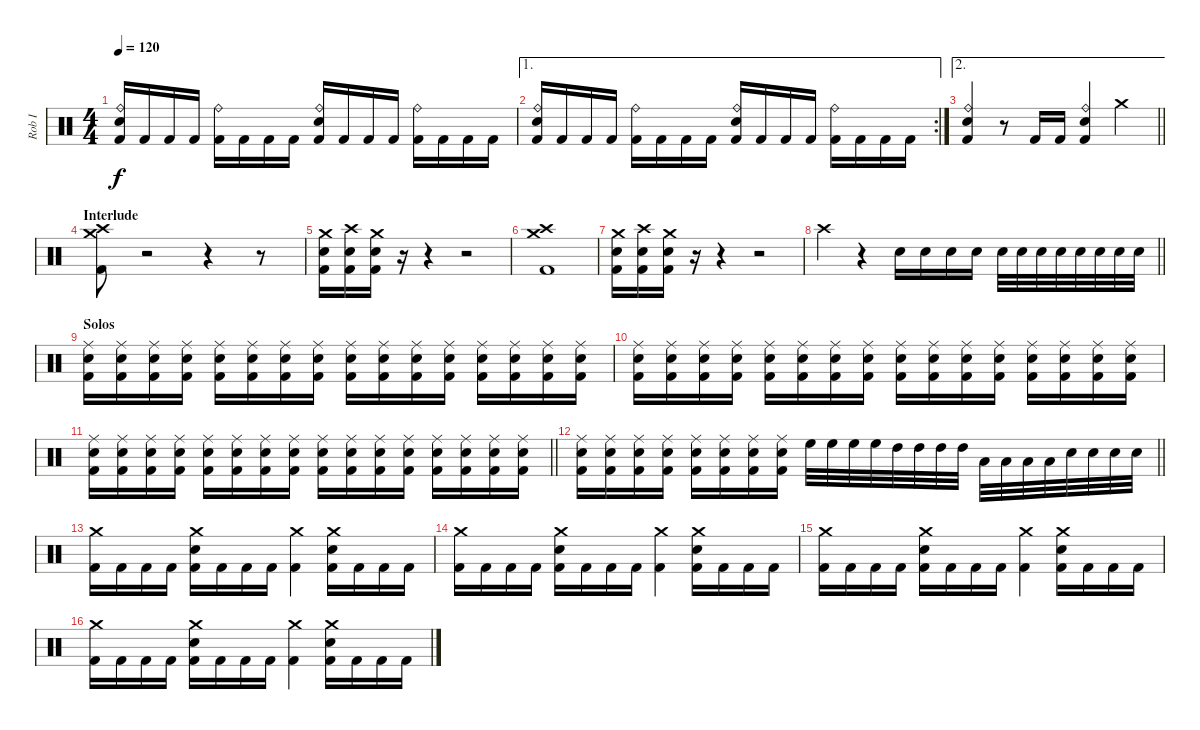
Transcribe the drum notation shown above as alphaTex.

\track ("Rob I" "Rob I") {instrument percussion}
\staff {score}
\articulation defaults
\ts (4 4)
\tempo 120
\clef neutral
\ks c
("Kick (hit) 2" "Ride (bell)" "Electric Snare (hit)").16{dy f} "Kick (hit) 2".16 "Kick (hit) 2".16 "Kick (hit) 2".16 ("Kick (hit) 2" "Ride (bell)").16 "Kick (hit) 2".16 "Kick (hit) 2".16 "Kick (hit) 2".16 ("Kick (hit) 2" "Ride (bell)" "Electric Snare (hit)").16 "Kick (hit) 2".16 "Kick (hit) 2".16 "Kick (hit) 2".16 ("Kick (hit) 2" "Ride (bell)").16 "Kick (hit) 2".16 "Kick (hit) 2".16 "Kick (hit) 2".16 |
\ae 1
\rc 2
("Kick (hit) 2" "Ride (bell)" "Electric Snare (hit)").16 "Kick (hit) 2".16 "Kick (hit) 2".16 "Kick (hit) 2".16 ("Kick (hit) 2" "Ride (bell)").16 "Kick (hit) 2".16 "Kick (hit) 2".16 "Kick (hit) 2".16 ("Kick (hit) 2" "Ride (bell)" "Electric Snare (hit)").16 "Kick (hit) 2".16 "Kick (hit) 2".16 "Kick (hit) 2".16 ("Kick (hit) 2" "Ride (bell)").16 "Kick (hit) 2".16 "Kick (hit) 2".16 "Kick (hit) 2".16 |
\ae 2
\barLineRight lightlight
("Electric Snare (hit)" "Ride (bell)" "Kick (hit) 2").4 r.8 "Kick (hit) 2".16 "Kick (hit) 2".16 ("Electric Snare (hit)" "Ride (bell)" "Kick (hit) 2").4 "Crash medium (hit)".4 |
\section ("" "Interlude")
("Kick (hit) 2" "Crash high (hit)" "Crash medium (hit)").8 r.2 r.4 r.8 |
("Kick (hit) 2" "Crash medium (hit)" "Electric Snare (hit)").16 ("Kick (hit) 2" "Crash high (hit)" "Electric Snare (hit)").16 ("Kick (hit) 2" "Crash medium (hit)" "Electric Snare (hit)").16 r.16 r.4 r.2 |
("Kick (hit) 2" "Crash high (hit)" "Crash medium (hit)").1 |
("Kick (hit) 2" "Crash medium (hit)" "Electric Snare (hit)").16 ("Kick (hit) 2" "Crash high (hit)" "Electric Snare (hit)").16 ("Kick (hit) 2" "Crash medium (hit)" "Electric Snare (hit)").16 r.16 r.4 r.2 |
\barLineRight lightlight "Crash high (hit)".4
r.4 "Electric Snare (hit)".16 "Electric Snare (hit)".16 "Electric Snare (hit)".16 "Electric Snare (hit)".16 "Electric Snare (hit)".32 "Electric Snare (hit)".32 "Electric Snare (hit)".32 "Electric Snare (hit)".32 "Electric Snare (hit)".32 "Electric Snare (hit)".32 "Electric Snare (hit)".32 "Electric Snare (hit)".32 |
\section ("" "Solos")
("Ride (middle)" "Electric Snare (hit)" "Kick (hit) 2").16 ("Ride (middle)" "Electric Snare (hit)" "Kick (hit) 2").16 ("Ride (middle)" "Electric Snare (hit)" "Kick (hit) 2").16 ("Ride (middle)" "Electric Snare (hit)" "Kick (hit) 2").16 ("Ride (middle)" "Electric Snare (hit)" "Kick (hit) 2").16 ("Ride (middle)" "Electric Snare (hit)" "Kick (hit) 2").16 ("Ride (middle)" "Electric Snare (hit)" "Kick (hit) 2").16 ("Ride (middle)" "Electric Snare (hit)" "Kick (hit) 2").16 ("Ride (middle)" "Electric Snare (hit)" "Kick (hit) 2").16 ("Ride (middle)" "Electric Snare (hit)" "Kick (hit) 2").16 ("Ride (middle)" "Electric Snare (hit)" "Kick (hit) 2").16 ("Ride (middle)" "Electric Snare (hit)" "Kick (hit) 2").16 ("Ride (middle)" "Electric Snare (hit)" "Kick (hit) 2").16 ("Ride (middle)" "Electric Snare (hit)" "Kick (hit) 2").16 ("Ride (middle)" "Electric Snare (hit)" "Kick (hit) 2").16 ("Ride (middle)" "Electric Snare (hit)" "Kick (hit) 2").16 |
("Ride (middle)" "Electric Snare (hit)" "Kick (hit) 2").16 ("Ride (middle)" "Electric Snare (hit)" "Kick (hit) 2").16 ("Ride (middle)" "Electric Snare (hit)" "Kick (hit) 2").16 ("Ride (middle)" "Electric Snare (hit)" "Kick (hit) 2").16 ("Ride (middle)" "Electric Snare (hit)" "Kick (hit) 2").16 ("Ride (middle)" "Electric Snare (hit)" "Kick (hit) 2").16 ("Ride (middle)" "Electric Snare (hit)" "Kick (hit) 2").16 ("Ride (middle)" "Electric Snare (hit)" "Kick (hit) 2").16 ("Ride (middle)" "Electric Snare (hit)" "Kick (hit) 2").16 ("Ride (middle)" "Electric Snare (hit)" "Kick (hit) 2").16 ("Ride (middle)" "Electric Snare (hit)" "Kick (hit) 2").16 ("Ride (middle)" "Electric Snare (hit)" "Kick (hit) 2").16 ("Ride (middle)" "Electric Snare (hit)" "Kick (hit) 2").16 ("Ride (middle)" "Electric Snare (hit)" "Kick (hit) 2").16 ("Ride (middle)" "Electric Snare (hit)" "Kick (hit) 2").16 ("Ride (middle)" "Electric Snare (hit)" "Kick (hit) 2").16 |
\barLineRight lightlight
("Ride (middle)" "Electric Snare (hit)" "Kick (hit) 2").16 ("Ride (middle)" "Electric Snare (hit)" "Kick (hit) 2").16 ("Ride (middle)" "Electric Snare (hit)" "Kick (hit) 2").16 ("Ride (middle)" "Electric Snare (hit)" "Kick (hit) 2").16 ("Ride (middle)" "Electric Snare (hit)" "Kick (hit) 2").16 ("Ride (middle)" "Electric Snare (hit)" "Kick (hit) 2").16 ("Ride (middle)" "Electric Snare (hit)" "Kick (hit) 2").16 ("Ride (middle)" "Electric Snare (hit)" "Kick (hit) 2").16 ("Ride (middle)" "Electric Snare (hit)" "Kick (hit) 2").16 ("Ride (middle)" "Electric Snare (hit)" "Kick (hit) 2").16 ("Ride (middle)" "Electric Snare (hit)" "Kick (hit) 2").16 ("Ride (middle)" "Electric Snare (hit)" "Kick (hit) 2").16 ("Ride (middle)" "Electric Snare (hit)" "Kick (hit) 2").16 ("Ride (middle)" "Electric Snare (hit)" "Kick (hit) 2").16 ("Ride (middle)" "Electric Snare (hit)" "Kick (hit) 2").16 ("Ride (middle)" "Electric Snare (hit)" "Kick (hit) 2").16 |
\section ("" "")
\barLineRight lightlight
("Ride (middle)" "Electric Snare (hit)" "Kick (hit) 2").16 ("Ride (middle)" "Electric Snare (hit)" "Kick (hit) 2").16 ("Ride (middle)" "Electric Snare (hit)" "Kick (hit) 2").16 ("Ride (middle)" "Electric Snare (hit)" "Kick (hit) 2").16 ("Ride (middle)" "Electric Snare (hit)" "Kick (hit) 2").16 ("Ride (middle)" "Electric Snare (hit)" "Kick (hit) 2").16 ("Ride (middle)" "Electric Snare (hit)" "Kick (hit) 2").16 ("Ride (middle)" "Electric Snare (hit)" "Kick (hit) 2").16 "High Floor Tom (hit)".32 "High Floor Tom (hit)".32 "High Floor Tom (hit)".32 "High Floor Tom (hit)".32 "High Tom (hit)".32 "High Tom (hit)".32 "High Tom (hit)".32 "High Tom (hit)".32 "Low Tom (hit)".32 "Low Tom (hit)".32 "Low Tom (hit)".32 "Low Tom (hit)".32 "Electric Snare (hit)".32 "Electric Snare (hit)".32 "Electric Snare (hit)".32 "Electric Snare (hit)".32 |
\section ("" "")
("Crash medium (hit)" "Kick (hit) 2").16 "Kick (hit) 2".16 "Kick (hit) 2".16 "Kick (hit) 2".16 ("Crash medium (hit)" "Electric Snare (hit)" "Kick (hit) 2").16 "Kick (hit) 2".16 "Kick (hit) 2".16 "Kick (hit) 2".16 ("Crash medium (hit)" "Kick (hit) 2").4 ("Crash medium (hit)" "Electric Snare (hit)" "Kick (hit) 2").16 "Kick (hit) 2".16 "Kick (hit) 2".16 "Kick (hit) 2".16 |
("Crash medium (hit)" "Kick (hit) 2").16 "Kick (hit) 2".16 "Kick (hit) 2".16 "Kick (hit) 2".16 ("Crash medium (hit)" "Electric Snare (hit)" "Kick (hit) 2").16 "Kick (hit) 2".16 "Kick (hit) 2".16 "Kick (hit) 2".16 ("Crash medium (hit)" "Kick (hit) 2").4 ("Crash medium (hit)" "Electric Snare (hit)" "Kick (hit) 2").16 "Kick (hit) 2".16 "Kick (hit) 2".16 "Kick (hit) 2".16 |
("Crash medium (hit)" "Kick (hit) 2").16 "Kick (hit) 2".16 "Kick (hit) 2".16 "Kick (hit) 2".16 ("Crash medium (hit)" "Electric Snare (hit)" "Kick (hit) 2").16 "Kick (hit) 2".16 "Kick (hit) 2".16 "Kick (hit) 2".16 ("Crash medium (hit)" "Kick (hit) 2").4 ("Crash medium (hit)" "Electric Snare (hit)" "Kick (hit) 2").16 "Kick (hit) 2".16 "Kick (hit) 2".16 "Kick (hit) 2".16 |
("Crash medium (hit)" "Kick (hit) 2").16 "Kick (hit) 2".16 "Kick (hit) 2".16 "Kick (hit) 2".16 ("Crash medium (hit)" "Electric Snare (hit)" "Kick (hit) 2").16 "Kick (hit) 2".16 "Kick (hit) 2".16 "Kick (hit) 2".16 ("Crash medium (hit)" "Kick (hit) 2").4 ("Crash medium (hit)" "Electric Snare (hit)" "Kick (hit) 2").16 "Kick (hit) 2".16 "Kick (hit) 2".16 "Kick (hit) 2".16
